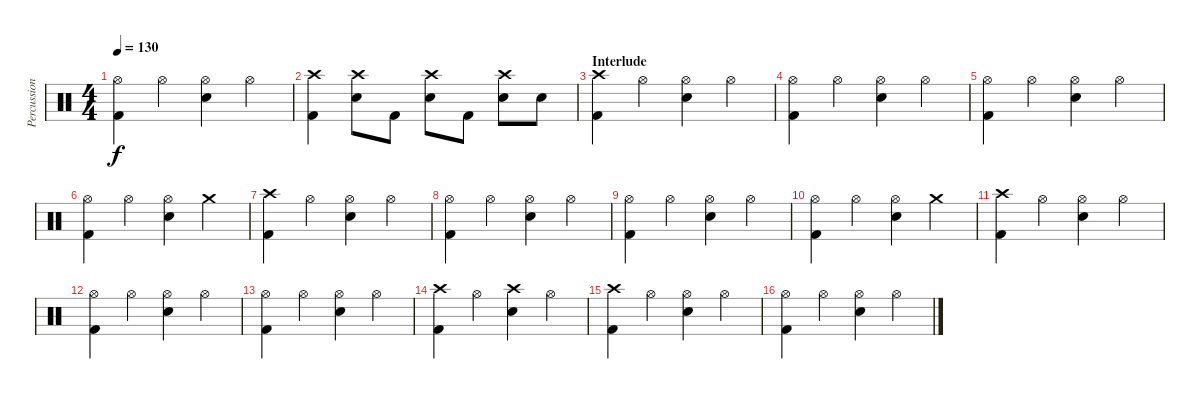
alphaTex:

\track ("Percussion" "Percussion") {instrument percussion}
\staff {score}
\articulation defaults
\ts (4 4)
\tempo 130
\clef neutral
\ks c
("Hi-Hat (open)" "Kick (hit) 2").4{dy f} "Hi-Hat (open)".4 ("Hi-Hat (open)" "Snare (hit) 2").4 "Hi-Hat (open)".4 |
("Crash high (hit)" "Kick (hit) 2").4 ("Crash high (hit)" "Snare (hit) 2").8 "Kick (hit) 2".8 ("Crash high (hit)" "Snare (hit) 2").8 "Kick (hit) 2".8 ("Crash high (hit)" "Snare (hit) 2").8 "Snare (hit) 2".8 |
\section ("" "Interlude")
("Crash high (hit)" "Kick (hit) 2").4 "Hi-Hat (open)".4 ("Hi-Hat (open)" "Snare (hit) 2").4 "Hi-Hat (open)".4 |
("Hi-Hat (open)" "Kick (hit) 2").4 "Hi-Hat (open)".4 ("Hi-Hat (open)" "Snare (hit) 2").4 "Hi-Hat (open)".4 |
("Hi-Hat (open)" "Kick (hit) 2").4 "Hi-Hat (open)".4 ("Hi-Hat (open)" "Snare (hit) 2").4 "Hi-Hat (open)".4 |
("Hi-Hat (open)" "Kick (hit) 2").4 "Hi-Hat (open)".4 ("Hi-Hat (open)" "Snare (hit) 2").4 "Crash medium (hit)".4 |
("Crash high (hit)" "Kick (hit) 2").4 "Hi-Hat (open)".4 ("Hi-Hat (open)" "Snare (hit) 2").4 "Hi-Hat (open)".4 |
("Hi-Hat (open)" "Kick (hit) 2").4 "Hi-Hat (open)".4 ("Hi-Hat (open)" "Snare (hit) 2").4 "Hi-Hat (open)".4 |
("Hi-Hat (open)" "Kick (hit) 2").4 "Hi-Hat (open)".4 ("Hi-Hat (open)" "Snare (hit) 2").4 "Hi-Hat (open)".4 |
("Hi-Hat (open)" "Kick (hit) 2").4 "Hi-Hat (open)".4 ("Hi-Hat (open)" "Snare (hit) 2").4 "Crash medium (hit)".4 |
("Crash high (hit)" "Kick (hit) 2").4 "Hi-Hat (open)".4 ("Hi-Hat (open)" "Snare (hit) 2").4 "Hi-Hat (open)".4 |
("Hi-Hat (open)" "Kick (hit) 2").4 "Hi-Hat (open)".4 ("Hi-Hat (open)" "Snare (hit) 2").4 "Hi-Hat (open)".4 |
("Hi-Hat (open)" "Kick (hit) 2").4 "Hi-Hat (open)".4 ("Hi-Hat (open)" "Snare (hit) 2").4 "Hi-Hat (open)".4 |
("Crash high (hit)" "Kick (hit) 2").4 "Hi-Hat (open)".4 ("Crash high (hit)" "Snare (hit) 2").4 "Hi-Hat (open)".4 |
("Crash high (hit)" "Kick (hit) 2").4 "Hi-Hat (open)".4 ("Hi-Hat (open)" "Snare (hit) 2").4 "Hi-Hat (open)".4 |
("Hi-Hat (open)" "Kick (hit) 2").4 "Hi-Hat (open)".4 ("Hi-Hat (open)" "Snare (hit) 2").4 "Hi-Hat (open)".4
